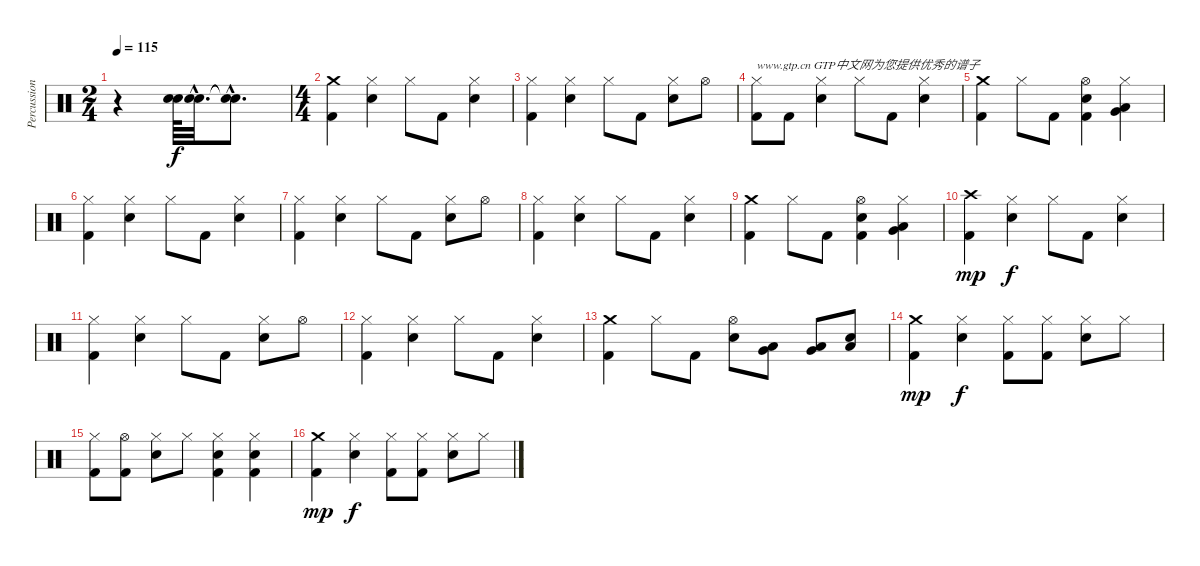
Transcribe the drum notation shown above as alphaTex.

\track ("Percussion" "Percussion") {instrument percussion}
\staff {score}
\articulation defaults
\ts (2 4)
\tempo 115
\clef neutral
\ks c
r.4{dy f} ("Metronome (bell)" "Electric Snare (hit)").64 ("Metronome (bell)"{hac} "Electric Snare (hit)"{hac}).32{d} ("Snare (hit)"{hac t} "Snare (hit)"{hac t}).8{d} |
\ts (4 4)
("Crash medium (hit)" "Kick (hit) 2").4 ("Hi-Hat (closed)" "Metronome (bell)").4 "Hi-Hat (closed)".8 "Kick (hit) 2".8 ("Hi-Hat (closed)" "Metronome (bell)").4 |
("Hi-Hat (closed)" "Kick (hit) 2").4 ("Hi-Hat (closed)" "Metronome (bell)").4 "Hi-Hat (closed)".8 "Kick (hit) 2".8 ("Hi-Hat (closed)" "Metronome (bell)").8 "Hi-Hat (open)".8 |
("Hi-Hat (closed)" "Kick (hit) 2").8{txt "www.gtp.cn GTP中文网为您提供优秀的谱子"} "Kick (hit) 2".8 ("Hi-Hat (closed)" "Metronome (bell)").4 "Hi-Hat (closed)".8 "Kick (hit) 2".8 ("Hi-Hat (closed)" "Metronome (bell)").4 |
("Crash medium (hit)" "Kick (hit) 2").4 "Hi-Hat (closed)".8 "Kick (hit) 2".8 ("Hi-Hat (open)" "Metronome (bell)" "Kick (hit) 2").4 ("Hi-Hat (closed)" "Very Low Tom (hit)" "Low Floor Tom (hit)").4 |
("Hi-Hat (closed)" "Kick (hit) 2").4 ("Hi-Hat (closed)" "Metronome (bell)").4 "Hi-Hat (closed)".8 "Kick (hit) 2".8 ("Hi-Hat (closed)" "Metronome (bell)").4 |
("Hi-Hat (closed)" "Kick (hit) 2").4 ("Hi-Hat (closed)" "Metronome (bell)").4 "Hi-Hat (closed)".8 "Kick (hit) 2".8 ("Hi-Hat (closed)" "Metronome (bell)").8 "Hi-Hat (open)".8 |
("Hi-Hat (closed)" "Kick (hit) 2").4 ("Hi-Hat (closed)" "Metronome (bell)").4 "Hi-Hat (closed)".8 "Kick (hit) 2".8 ("Hi-Hat (closed)" "Metronome (bell)").4 |
("Crash medium (hit)" "Kick (hit) 2").4 "Hi-Hat (closed)".8 "Kick (hit) 2".8 ("Hi-Hat (open)" "Metronome (bell)" "Kick (hit) 2").4 ("Hi-Hat (closed)" "Very Low Tom (hit)" "Low Floor Tom (hit)").4 |
("Crash high (hit)" "Kick (hit) 2").4{dy mp} ("Hi-Hat (closed)" "Metronome (bell)").4{dy f} "Hi-Hat (closed)".8 "Kick (hit) 2".8 ("Hi-Hat (closed)" "Metronome (bell)").4 |
("Hi-Hat (closed)" "Kick (hit) 2").4 ("Hi-Hat (closed)" "Metronome (bell)").4 "Hi-Hat (closed)".8 "Kick (hit) 2".8 ("Hi-Hat (closed)" "Metronome (bell)").8 "Hi-Hat (open)".8 |
("Hi-Hat (closed)" "Kick (hit) 2").4 ("Hi-Hat (closed)" "Metronome (bell)").4 "Hi-Hat (closed)".8 "Kick (hit) 2".8 ("Hi-Hat (closed)" "Metronome (bell)").4 |
("Crash medium (hit)" "Kick (hit) 2").4 "Hi-Hat (closed)".8 "Kick (hit) 2".8 ("Hi-Hat (open)" "Metronome (bell)").8 ("Low Tom (hit)" "Very Low Tom (hit)").8 ("Very Low Tom (hit)" "Low Floor Tom (hit)").8 ("Low Floor Tom (hit)" "Snare (hit)").8 |
("Crash medium (hit)" "Kick (hit) 2").4{dy mp} ("Hi-Hat (closed)" "Metronome (bell)").4{dy f} ("Hi-Hat (closed)" "Kick (hit) 2").8 ("Hi-Hat (closed)" "Kick (hit) 2").8 ("Hi-Hat (closed)" "Metronome (bell)").8 "Hi-Hat (closed)".8 |
("Hi-Hat (closed)" "Kick (hit) 2").8 ("Hi-Hat (open)" "Kick (hit) 2").8 ("Hi-Hat (closed)" "Metronome (bell)").8 "Hi-Hat (closed)".8 ("Hi-Hat (closed)" "Metronome (bell)" "Kick (hit) 2").4 ("Hi-Hat (closed)" "Metronome (bell)" "Kick (hit) 2").4 |
("Crash medium (hit)" "Kick (hit) 2").4{dy mp} ("Hi-Hat (closed)" "Metronome (bell)").4{dy f} ("Hi-Hat (closed)" "Kick (hit) 2").8 ("Hi-Hat (closed)" "Kick (hit) 2").8 ("Hi-Hat (closed)" "Metronome (bell)").8 "Hi-Hat (closed)".8
